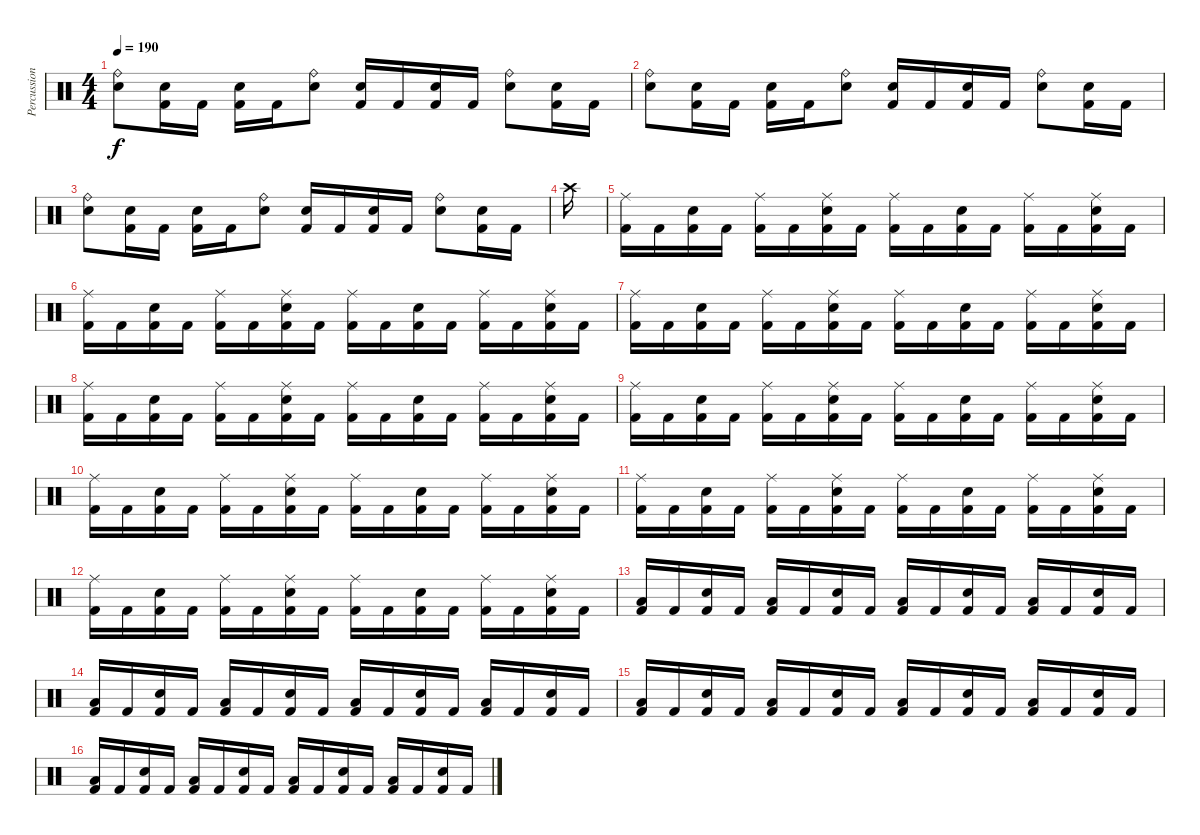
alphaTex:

\track ("Percussion" "Percussion") {instrument percussion}
\staff {score}
\articulation defaults
\ts (4 4)
\tempo 190
\clef neutral
\ks c
("Ride (bell)" "Snare (hit) 2").8{dy f} ("Snare (hit) 2" "Kick (hit) 2").16 "Kick (hit) 2".16 ("Snare (hit) 2" "Kick (hit) 2").16 "Kick (hit) 2".16 ("Ride (bell)" "Snare (hit) 2").8 ("Snare (hit) 2" "Kick (hit) 2").16 "Kick (hit) 2".16 ("Snare (hit) 2" "Kick (hit) 2").16 "Kick (hit) 2".16 ("Ride (bell)" "Snare (hit) 2").8 ("Snare (hit) 2" "Kick (hit) 2").16 "Kick (hit) 2".16 |
("Ride (bell)" "Snare (hit) 2").8 ("Snare (hit) 2" "Kick (hit) 2").16 "Kick (hit) 2".16 ("Snare (hit) 2" "Kick (hit) 2").16 "Kick (hit) 2".16 ("Ride (bell)" "Snare (hit) 2").8 ("Snare (hit) 2" "Kick (hit) 2").16 "Kick (hit) 2".16 ("Snare (hit) 2" "Kick (hit) 2").16 "Kick (hit) 2".16 ("Ride (bell)" "Snare (hit) 2").8 ("Snare (hit) 2" "Kick (hit) 2").16 "Kick (hit) 2".16 |
("Ride (bell)" "Snare (hit) 2").8 ("Snare (hit) 2" "Kick (hit) 2").16 "Kick (hit) 2".16 ("Snare (hit) 2" "Kick (hit) 2").16 "Kick (hit) 2".16 ("Ride (bell)" "Snare (hit) 2").8 ("Snare (hit) 2" "Kick (hit) 2").16 "Kick (hit) 2".16 ("Snare (hit) 2" "Kick (hit) 2").16 "Kick (hit) 2".16 ("Ride (bell)" "Snare (hit) 2").8 ("Snare (hit) 2" "Kick (hit) 2").16 "Kick (hit) 2".16 |
"Crash high (hit)".16 |
("Ride (middle)" "Kick (hit) 2").16 "Kick (hit) 2".16 ("Snare (hit) 2" "Kick (hit) 2").16 "Kick (hit) 2".16 ("Ride (middle)" "Kick (hit) 2").16 "Kick (hit) 2".16 ("Ride (middle)" "Snare (hit) 2" "Kick (hit) 2").16 "Kick (hit) 2".16 ("Ride (middle)" "Kick (hit) 2").16 "Kick (hit) 2".16 ("Snare (hit) 2" "Kick (hit) 2").16 "Kick (hit) 2".16 ("Ride (middle)" "Kick (hit) 2").16 "Kick (hit) 2".16 ("Ride (middle)" "Snare (hit) 2" "Kick (hit) 2").16 "Kick (hit) 2".16 |
("Ride (middle)" "Kick (hit) 2").16 "Kick (hit) 2".16 ("Snare (hit) 2" "Kick (hit) 2").16 "Kick (hit) 2".16 ("Ride (middle)" "Kick (hit) 2").16 "Kick (hit) 2".16 ("Ride (middle)" "Snare (hit) 2" "Kick (hit) 2").16 "Kick (hit) 2".16 ("Ride (middle)" "Kick (hit) 2").16 "Kick (hit) 2".16 ("Snare (hit) 2" "Kick (hit) 2").16 "Kick (hit) 2".16 ("Ride (middle)" "Kick (hit) 2").16 "Kick (hit) 2".16 ("Ride (middle)" "Snare (hit) 2" "Kick (hit) 2").16 "Kick (hit) 2".16 |
("Ride (middle)" "Kick (hit) 2").16 "Kick (hit) 2".16 ("Snare (hit) 2" "Kick (hit) 2").16 "Kick (hit) 2".16 ("Ride (middle)" "Kick (hit) 2").16 "Kick (hit) 2".16 ("Ride (middle)" "Snare (hit) 2" "Kick (hit) 2").16 "Kick (hit) 2".16 ("Ride (middle)" "Kick (hit) 2").16 "Kick (hit) 2".16 ("Snare (hit) 2" "Kick (hit) 2").16 "Kick (hit) 2".16 ("Ride (middle)" "Kick (hit) 2").16 "Kick (hit) 2".16 ("Ride (middle)" "Snare (hit) 2" "Kick (hit) 2").16 "Kick (hit) 2".16 |
("Ride (middle)" "Kick (hit) 2").16 "Kick (hit) 2".16 ("Snare (hit) 2" "Kick (hit) 2").16 "Kick (hit) 2".16 ("Ride (middle)" "Kick (hit) 2").16 "Kick (hit) 2".16 ("Ride (middle)" "Snare (hit) 2" "Kick (hit) 2").16 "Kick (hit) 2".16 ("Ride (middle)" "Kick (hit) 2").16 "Kick (hit) 2".16 ("Snare (hit) 2" "Kick (hit) 2").16 "Kick (hit) 2".16 ("Ride (middle)" "Kick (hit) 2").16 "Kick (hit) 2".16 ("Ride (middle)" "Snare (hit) 2" "Kick (hit) 2").16 "Kick (hit) 2".16 |
("Ride (middle)" "Kick (hit) 2").16 "Kick (hit) 2".16 ("Snare (hit) 2" "Kick (hit) 2").16 "Kick (hit) 2".16 ("Ride (middle)" "Kick (hit) 2").16 "Kick (hit) 2".16 ("Ride (middle)" "Snare (hit) 2" "Kick (hit) 2").16 "Kick (hit) 2".16 ("Ride (middle)" "Kick (hit) 2").16 "Kick (hit) 2".16 ("Snare (hit) 2" "Kick (hit) 2").16 "Kick (hit) 2".16 ("Ride (middle)" "Kick (hit) 2").16 "Kick (hit) 2".16 ("Ride (middle)" "Snare (hit) 2" "Kick (hit) 2").16 "Kick (hit) 2".16 |
("Ride (middle)" "Kick (hit) 2").16 "Kick (hit) 2".16 ("Snare (hit) 2" "Kick (hit) 2").16 "Kick (hit) 2".16 ("Ride (middle)" "Kick (hit) 2").16 "Kick (hit) 2".16 ("Ride (middle)" "Snare (hit) 2" "Kick (hit) 2").16 "Kick (hit) 2".16 ("Ride (middle)" "Kick (hit) 2").16 "Kick (hit) 2".16 ("Snare (hit) 2" "Kick (hit) 2").16 "Kick (hit) 2".16 ("Ride (middle)" "Kick (hit) 2").16 "Kick (hit) 2".16 ("Ride (middle)" "Snare (hit) 2" "Kick (hit) 2").16 "Kick (hit) 2".16 |
("Ride (middle)" "Kick (hit) 2").16 "Kick (hit) 2".16 ("Snare (hit) 2" "Kick (hit) 2").16 "Kick (hit) 2".16 ("Ride (middle)" "Kick (hit) 2").16 "Kick (hit) 2".16 ("Ride (middle)" "Snare (hit) 2" "Kick (hit) 2").16 "Kick (hit) 2".16 ("Ride (middle)" "Kick (hit) 2").16 "Kick (hit) 2".16 ("Snare (hit) 2" "Kick (hit) 2").16 "Kick (hit) 2".16 ("Ride (middle)" "Kick (hit) 2").16 "Kick (hit) 2".16 ("Ride (middle)" "Snare (hit) 2" "Kick (hit) 2").16 "Kick (hit) 2".16 |
("Ride (middle)" "Kick (hit) 2").16 "Kick (hit) 2".16 ("Snare (hit) 2" "Kick (hit) 2").16 "Kick (hit) 2".16 ("Ride (middle)" "Kick (hit) 2").16 "Kick (hit) 2".16 ("Ride (middle)" "Snare (hit) 2" "Kick (hit) 2").16 "Kick (hit) 2".16 ("Ride (middle)" "Kick (hit) 2").16 "Kick (hit) 2".16 ("Snare (hit) 2" "Kick (hit) 2").16 "Kick (hit) 2".16 ("Ride (middle)" "Kick (hit) 2").16 "Kick (hit) 2".16 ("Ride (middle)" "Snare (hit) 2" "Kick (hit) 2").16 "Kick (hit) 2".16 |
("Low Floor Tom (hit)" "Kick (hit) 2").16 "Kick (hit) 2".16 ("Snare (hit) 2" "Kick (hit) 2").16 "Kick (hit) 2".16 ("Low Floor Tom (hit)" "Kick (hit) 2").16 "Kick (hit) 2".16 ("Snare (hit) 2" "Kick (hit) 2").16 "Kick (hit) 2".16 ("Low Floor Tom (hit)" "Kick (hit) 2").16 "Kick (hit) 2".16 ("Snare (hit) 2" "Kick (hit) 2").16 "Kick (hit) 2".16 ("Low Floor Tom (hit)" "Kick (hit) 2").16 "Kick (hit) 2".16 ("Snare (hit) 2" "Kick (hit) 2").16 "Kick (hit) 2".16 |
("Low Floor Tom (hit)" "Kick (hit) 2").16 "Kick (hit) 2".16 ("Snare (hit) 2" "Kick (hit) 2").16 "Kick (hit) 2".16 ("Low Floor Tom (hit)" "Kick (hit) 2").16 "Kick (hit) 2".16 ("Snare (hit) 2" "Kick (hit) 2").16 "Kick (hit) 2".16 ("Low Floor Tom (hit)" "Kick (hit) 2").16 "Kick (hit) 2".16 ("Snare (hit) 2" "Kick (hit) 2").16 "Kick (hit) 2".16 ("Low Floor Tom (hit)" "Kick (hit) 2").16 "Kick (hit) 2".16 ("Snare (hit) 2" "Kick (hit) 2").16 "Kick (hit) 2".16 |
("Low Floor Tom (hit)" "Kick (hit) 2").16 "Kick (hit) 2".16 ("Snare (hit) 2" "Kick (hit) 2").16 "Kick (hit) 2".16 ("Low Floor Tom (hit)" "Kick (hit) 2").16 "Kick (hit) 2".16 ("Snare (hit) 2" "Kick (hit) 2").16 "Kick (hit) 2".16 ("Low Floor Tom (hit)" "Kick (hit) 2").16 "Kick (hit) 2".16 ("Snare (hit) 2" "Kick (hit) 2").16 "Kick (hit) 2".16 ("Low Floor Tom (hit)" "Kick (hit) 2").16 "Kick (hit) 2".16 ("Snare (hit) 2" "Kick (hit) 2").16 "Kick (hit) 2".16 |
("Low Floor Tom (hit)" "Kick (hit) 2").16 "Kick (hit) 2".16 ("Snare (hit) 2" "Kick (hit) 2").16 "Kick (hit) 2".16 ("Low Floor Tom (hit)" "Kick (hit) 2").16 "Kick (hit) 2".16 ("Snare (hit) 2" "Kick (hit) 2").16 "Kick (hit) 2".16 ("Low Floor Tom (hit)" "Kick (hit) 2").16 "Kick (hit) 2".16 ("Snare (hit) 2" "Kick (hit) 2").16 "Kick (hit) 2".16 ("Low Floor Tom (hit)" "Kick (hit) 2").16 "Kick (hit) 2".16 ("Snare (hit) 2" "Kick (hit) 2").16 "Kick (hit) 2".16
